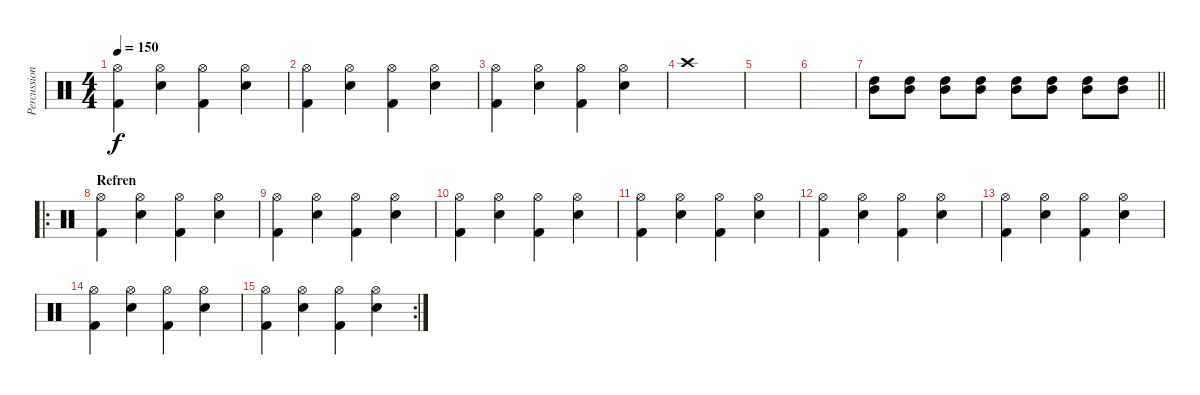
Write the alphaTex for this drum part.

\track ("Percussion" "Percussion") {instrument percussion}
\staff {score}
\articulation defaults
\ts (4 4)
\tempo 150
\clef neutral
\ks c
("Hi-Hat (open)" "Kick (hit) 2").4{dy f} ("Hi-Hat (open)" "Snare (hit) 2").4 ("Hi-Hat (open)" "Kick (hit) 2").4 ("Hi-Hat (open)" "Snare (hit) 2").4 |
("Hi-Hat (open)" "Kick (hit) 2").4 ("Hi-Hat (open)" "Snare (hit) 2").4 ("Hi-Hat (open)" "Kick (hit) 2").4 ("Hi-Hat (open)" "Snare (hit) 2").4 |
("Hi-Hat (open)" "Kick (hit) 2").4 ("Hi-Hat (open)" "Snare (hit) 2").4 ("Hi-Hat (open)" "Kick (hit) 2").4 ("Hi-Hat (open)" "Snare (hit) 2").4 |
"Crash high (hit)".1 |
|
|
\barLineRight lightlight
("High Tom (hit)" "Mid Tom (hit)").8 ("High Tom (hit)" "Mid Tom (hit)").8 ("High Tom (hit)" "Mid Tom (hit)").8 ("High Tom (hit)" "Mid Tom (hit)").8 ("High Tom (hit)" "Mid Tom (hit)").8 ("High Tom (hit)" "Mid Tom (hit)").8 ("High Tom (hit)" "Mid Tom (hit)").8 ("High Tom (hit)" "Mid Tom (hit)").8 |
\ro
\section ("" "Refren")
("Hi-Hat (open)" "Kick (hit) 2").4 ("Hi-Hat (open)" "Snare (hit) 2").4 ("Hi-Hat (open)" "Kick (hit) 2").4 ("Hi-Hat (open)" "Snare (hit) 2").4 |
("Hi-Hat (open)" "Kick (hit) 2").4 ("Hi-Hat (open)" "Snare (hit) 2").4 ("Hi-Hat (open)" "Kick (hit) 2").4 ("Hi-Hat (open)" "Snare (hit) 2").4 |
("Hi-Hat (open)" "Kick (hit) 2").4 ("Hi-Hat (open)" "Snare (hit) 2").4 ("Hi-Hat (open)" "Kick (hit) 2").4 ("Hi-Hat (open)" "Snare (hit) 2").4 |
("Hi-Hat (open)" "Kick (hit) 2").4 ("Hi-Hat (open)" "Snare (hit) 2").4 ("Hi-Hat (open)" "Kick (hit) 2").4 ("Hi-Hat (open)" "Snare (hit) 2").4 |
("Hi-Hat (open)" "Kick (hit) 2").4 ("Hi-Hat (open)" "Snare (hit) 2").4 ("Hi-Hat (open)" "Kick (hit) 2").4 ("Hi-Hat (open)" "Snare (hit) 2").4 |
("Hi-Hat (open)" "Kick (hit) 2").4 ("Hi-Hat (open)" "Snare (hit) 2").4 ("Hi-Hat (open)" "Kick (hit) 2").4 ("Hi-Hat (open)" "Snare (hit) 2").4 |
("Hi-Hat (open)" "Kick (hit) 2").4 ("Hi-Hat (open)" "Snare (hit) 2").4 ("Hi-Hat (open)" "Kick (hit) 2").4 ("Hi-Hat (open)" "Snare (hit) 2").4 |
\rc 2
("Hi-Hat (open)" "Kick (hit) 2").4 ("Hi-Hat (open)" "Snare (hit) 2").4 ("Hi-Hat (open)" "Kick (hit) 2").4 ("Hi-Hat (open)" "Snare (hit) 2").4
